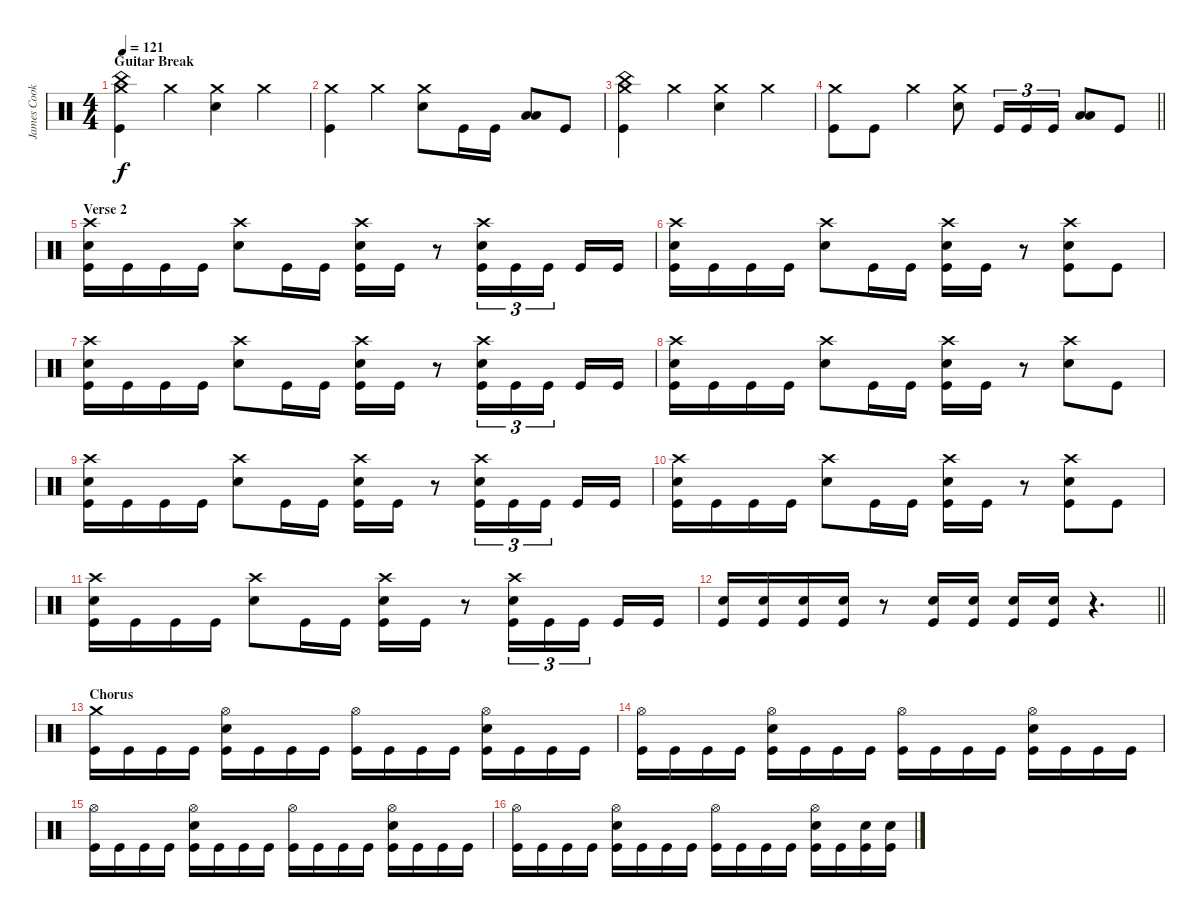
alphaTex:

\track ("James Cook" "James Cook") {instrument percussion}
\staff {score}
\articulation defaults
\ts (4 4)
\section ("" "Guitar Break")
\tempo 121
\clef neutral
\ks c
("China (hit)" "Crash medium (hit)" "Kick (hit)").4{dy f} "Crash medium (hit)".4 ("Crash medium (hit)" "Snare (hit) 2").4 "Crash medium (hit)".4 |
("Crash medium (hit)" "Kick (hit)").4 "Crash medium (hit)".4 ("Crash medium (hit)" "Snare (hit) 2").8 "Kick (hit)".16 "Kick (hit)".16 ("Low Tom (hit)" "Low Floor Tom (hit)").8 "Kick (hit)".8 |
("China (hit)" "Crash medium (hit)" "Kick (hit)").4 "Crash medium (hit)".4 ("Crash medium (hit)" "Snare (hit) 2").4 "Crash medium (hit)".4 |
\barLineRight lightlight
("Crash medium (hit)" "Kick (hit)").8 "Kick (hit)".8 "Crash medium (hit)".4 ("Crash medium (hit)" "Snare (hit) 2").8 "Kick (hit)".16{tu (3 2)} "Kick (hit)".16{tu (3 2)} "Kick (hit)".16{tu (3 2)} ("Low Tom (hit)" "Low Floor Tom (hit)").8 "Kick (hit)".8 |
\section ("" "Verse 2")
("Crash high (hit)" "Snare (hit) 2" "Kick (hit)").16 "Kick (hit)".16 "Kick (hit)".16 "Kick (hit)".16 ("Crash high (hit)" "Snare (hit) 2").8 "Kick (hit)".16 "Kick (hit)".16 ("Crash high (hit)" "Snare (hit) 2" "Kick (hit)").16 "Kick (hit)".16 r.8 ("Crash high (hit)" "Snare (hit) 2" "Kick (hit)").16{tu (3 2)} "Kick (hit)".16{tu (3 2)} "Kick (hit)".16{tu (3 2) beam splitsecondary} "Kick (hit)".16 "Kick (hit)".16 |
("Crash high (hit)" "Snare (hit) 2" "Kick (hit)").16 "Kick (hit)".16 "Kick (hit)".16 "Kick (hit)".16 ("Crash high (hit)" "Snare (hit) 2").8 "Kick (hit)".16 "Kick (hit)".16 ("Crash high (hit)" "Snare (hit) 2" "Kick (hit)").16 "Kick (hit)".16 r.8 ("Crash high (hit)" "Snare (hit) 2" "Kick (hit)").8 "Kick (hit)".8 |
("Crash high (hit)" "Snare (hit) 2" "Kick (hit)").16 "Kick (hit)".16 "Kick (hit)".16 "Kick (hit)".16 ("Crash high (hit)" "Snare (hit) 2").8 "Kick (hit)".16 "Kick (hit)".16 ("Crash high (hit)" "Snare (hit) 2" "Kick (hit)").16 "Kick (hit)".16 r.8 ("Crash high (hit)" "Snare (hit) 2" "Kick (hit)").16{tu (3 2)} "Kick (hit)".16{tu (3 2)} "Kick (hit)".16{tu (3 2) beam splitsecondary} "Kick (hit)".16 "Kick (hit)".16 |
("Crash high (hit)" "Snare (hit) 2" "Kick (hit)").16 "Kick (hit)".16 "Kick (hit)".16 "Kick (hit)".16 ("Crash high (hit)" "Snare (hit) 2").8 "Kick (hit)".16 "Kick (hit)".16 ("Crash high (hit)" "Snare (hit) 2" "Kick (hit)").16 "Kick (hit)".16 r.8 ("Crash high (hit)" "Snare (hit) 2").8 "Kick (hit)".8 |
("Crash high (hit)" "Snare (hit) 2" "Kick (hit)").16 "Kick (hit)".16 "Kick (hit)".16 "Kick (hit)".16 ("Crash high (hit)" "Snare (hit) 2").8 "Kick (hit)".16 "Kick (hit)".16 ("Crash high (hit)" "Snare (hit) 2" "Kick (hit)").16 "Kick (hit)".16 r.8 ("Crash high (hit)" "Snare (hit) 2" "Kick (hit)").16{tu (3 2)} "Kick (hit)".16{tu (3 2)} "Kick (hit)".16{tu (3 2) beam splitsecondary} "Kick (hit)".16 "Kick (hit)".16 |
("Crash high (hit)" "Snare (hit) 2" "Kick (hit)").16 "Kick (hit)".16 "Kick (hit)".16 "Kick (hit)".16 ("Crash high (hit)" "Snare (hit) 2").8 "Kick (hit)".16 "Kick (hit)".16 ("Crash high (hit)" "Snare (hit) 2" "Kick (hit)").16 "Kick (hit)".16 r.8 ("Crash high (hit)" "Snare (hit) 2" "Kick (hit)").8 "Kick (hit)".8 |
("Crash high (hit)" "Snare (hit) 2" "Kick (hit)").16 "Kick (hit)".16 "Kick (hit)".16 "Kick (hit)".16 ("Crash high (hit)" "Snare (hit) 2").8 "Kick (hit)".16 "Kick (hit)".16 ("Crash high (hit)" "Snare (hit) 2" "Kick (hit)").16 "Kick (hit)".16 r.8 ("Crash high (hit)" "Snare (hit) 2" "Kick (hit)").16{tu (3 2)} "Kick (hit)".16{tu (3 2)} "Kick (hit)".16{tu (3 2) beam splitsecondary} "Kick (hit)".16 "Kick (hit)".16 |
\barLineRight lightlight
("Snare (hit) 2" "Kick (hit)").16 ("Snare (hit) 2" "Kick (hit)").16 ("Snare (hit) 2" "Kick (hit)").16 ("Snare (hit) 2" "Kick (hit)").16 r.8 ("Snare (hit) 2" "Kick (hit)").16 ("Snare (hit) 2" "Kick (hit)").16 ("Snare (hit) 2" "Kick (hit)").16 ("Snare (hit) 2" "Kick (hit)").16 r.4{d} |
\section ("" "Chorus")
("Crash medium (hit)" "Kick (hit)").16 "Kick (hit)".16 "Kick (hit)".16 "Kick (hit)".16 ("Hi-Hat (open)" "Snare (hit) 2" "Kick (hit)").16 "Kick (hit)".16 "Kick (hit)".16 "Kick (hit)".16 ("Hi-Hat (open)" "Kick (hit)").16 "Kick (hit)".16 "Kick (hit)".16 "Kick (hit)".16 ("Hi-Hat (open)" "Snare (hit) 2" "Kick (hit)").16 "Kick (hit)".16 "Kick (hit)".16 "Kick (hit)".16 |
("Hi-Hat (open)" "Kick (hit)").16 "Kick (hit)".16 "Kick (hit)".16 "Kick (hit)".16 ("Hi-Hat (open)" "Snare (hit) 2" "Kick (hit)").16 "Kick (hit)".16 "Kick (hit)".16 "Kick (hit)".16 ("Hi-Hat (open)" "Kick (hit)").16 "Kick (hit)".16 "Kick (hit)".16 "Kick (hit)".16 ("Hi-Hat (open)" "Snare (hit) 2" "Kick (hit)").16 "Kick (hit)".16 "Kick (hit)".16 "Kick (hit)".16 |
("Hi-Hat (open)" "Kick (hit)").16 "Kick (hit)".16 "Kick (hit)".16 "Kick (hit)".16 ("Hi-Hat (open)" "Snare (hit) 2" "Kick (hit)").16 "Kick (hit)".16 "Kick (hit)".16 "Kick (hit)".16 ("Hi-Hat (open)" "Kick (hit)").16 "Kick (hit)".16 "Kick (hit)".16 "Kick (hit)".16 ("Hi-Hat (open)" "Snare (hit) 2" "Kick (hit)").16 "Kick (hit)".16 "Kick (hit)".16 "Kick (hit)".16 |
("Hi-Hat (open)" "Kick (hit)").16 "Kick (hit)".16 "Kick (hit)".16 "Kick (hit)".16 ("Hi-Hat (open)" "Snare (hit) 2" "Kick (hit)").16 "Kick (hit)".16 "Kick (hit)".16 "Kick (hit)".16 ("Hi-Hat (open)" "Kick (hit)").16 "Kick (hit)".16 "Kick (hit)".16 "Kick (hit)".16 ("Hi-Hat (open)" "Snare (hit) 2" "Kick (hit)").16 "Kick (hit)".16 ("Snare (hit) 2" "Kick (hit)").16 ("Snare (hit) 2" "Kick (hit)").16
